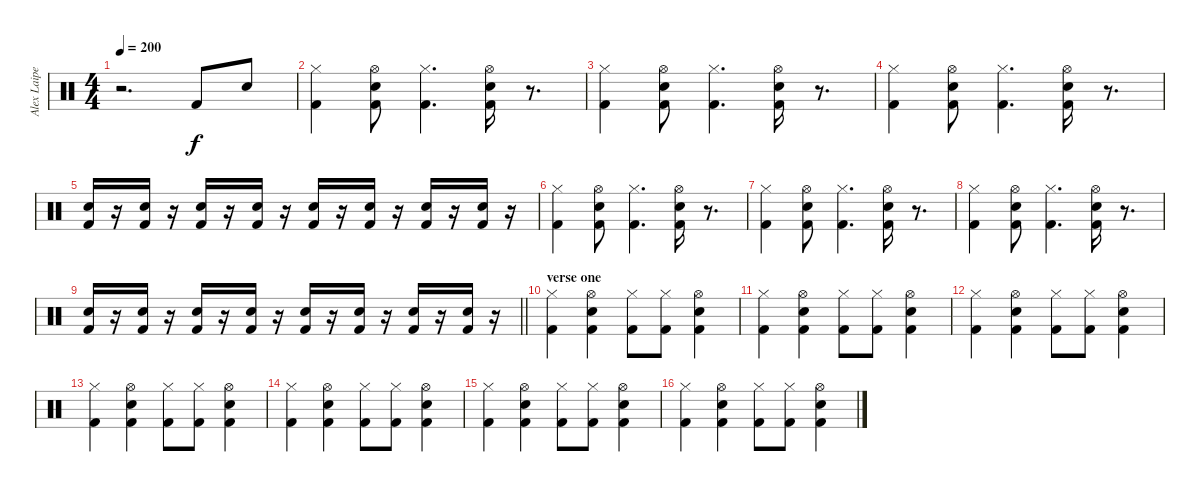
\track ("Alex Laipeneiks - Drums" "Alex Laipe") {instrument percussion}
\staff {score}
\articulation defaults
\ts (4 4)
\tempo 200
\clef neutral
\ks c
r.2{d dy f} "Kick (hit) 2".8 "Snare (hit) 2".8 |
("Hi-Hat (closed)" "Kick (hit) 2").4 ("Hi-Hat (open)" "Snare (hit) 2" "Kick (hit) 2").8 ("Hi-Hat (closed)" "Kick (hit) 2").4{d} ("Hi-Hat (open)" "Snare (hit) 2" "Kick (hit) 2").16 r.8{d} |
("Hi-Hat (closed)" "Kick (hit) 2").4 ("Hi-Hat (open)" "Snare (hit) 2" "Kick (hit) 2").8 ("Hi-Hat (closed)" "Kick (hit) 2").4{d} ("Hi-Hat (open)" "Snare (hit) 2" "Kick (hit) 2").16 r.8{d} |
("Hi-Hat (closed)" "Kick (hit) 2").4 ("Hi-Hat (open)" "Snare (hit) 2" "Kick (hit) 2").8 ("Hi-Hat (closed)" "Kick (hit) 2").4{d} ("Hi-Hat (open)" "Snare (hit) 2" "Kick (hit) 2").16 r.8{d} |
("Snare (hit) 2" "Kick (hit) 2").16 r.16 ("Snare (hit) 2" "Kick (hit) 2").16 r.16 ("Snare (hit) 2" "Kick (hit) 2").16 r.16 ("Snare (hit) 2" "Kick (hit) 2").16 r.16 ("Snare (hit) 2" "Kick (hit) 2").16 r.16 ("Snare (hit) 2" "Kick (hit) 2").16 r.16 ("Snare (hit) 2" "Kick (hit) 2").16 r.16 ("Snare (hit) 2" "Kick (hit) 2").16 r.16 |
("Hi-Hat (closed)" "Kick (hit) 2").4 ("Hi-Hat (open)" "Snare (hit) 2" "Kick (hit) 2").8 ("Hi-Hat (closed)" "Kick (hit) 2").4{d} ("Hi-Hat (open)" "Snare (hit) 2" "Kick (hit) 2").16 r.8{d} |
("Hi-Hat (closed)" "Kick (hit) 2").4 ("Hi-Hat (open)" "Snare (hit) 2" "Kick (hit) 2").8 ("Hi-Hat (closed)" "Kick (hit) 2").4{d} ("Hi-Hat (open)" "Snare (hit) 2" "Kick (hit) 2").16 r.8{d} |
("Hi-Hat (closed)" "Kick (hit) 2").4 ("Hi-Hat (open)" "Snare (hit) 2" "Kick (hit) 2").8 ("Hi-Hat (closed)" "Kick (hit) 2").4{d} ("Hi-Hat (open)" "Snare (hit) 2" "Kick (hit) 2").16 r.8{d} |
\barLineRight lightlight
("Snare (hit) 2" "Kick (hit) 2").16 r.16 ("Snare (hit) 2" "Kick (hit) 2").16 r.16 ("Snare (hit) 2" "Kick (hit) 2").16 r.16 ("Snare (hit) 2" "Kick (hit) 2").16 r.16 ("Snare (hit) 2" "Kick (hit) 2").16 r.16 ("Snare (hit) 2" "Kick (hit) 2").16 r.16 ("Snare (hit) 2" "Kick (hit) 2").16 r.16 ("Snare (hit) 2" "Kick (hit) 2").16 r.16 |
\section ("" "verse one")
("Hi-Hat (closed)" "Kick (hit) 2").4 ("Hi-Hat (open)" "Snare (hit) 2" "Kick (hit) 2").4 ("Hi-Hat (closed)" "Kick (hit) 2").8 ("Hi-Hat (closed)" "Kick (hit) 2").8 ("Hi-Hat (open)" "Snare (hit) 2" "Kick (hit) 2").4 |
("Hi-Hat (closed)" "Kick (hit) 2").4 ("Hi-Hat (open)" "Snare (hit) 2" "Kick (hit) 2").4 ("Hi-Hat (closed)" "Kick (hit) 2").8 ("Hi-Hat (closed)" "Kick (hit) 2").8 ("Hi-Hat (open)" "Snare (hit) 2" "Kick (hit) 2").4 |
("Hi-Hat (closed)" "Kick (hit) 2").4 ("Hi-Hat (open)" "Snare (hit) 2" "Kick (hit) 2").4 ("Hi-Hat (closed)" "Kick (hit) 2").8 ("Hi-Hat (closed)" "Kick (hit) 2").8 ("Hi-Hat (open)" "Snare (hit) 2" "Kick (hit) 2").4 |
("Hi-Hat (closed)" "Kick (hit) 2").4 ("Hi-Hat (open)" "Snare (hit) 2" "Kick (hit) 2").4 ("Hi-Hat (closed)" "Kick (hit) 2").8 ("Hi-Hat (closed)" "Kick (hit) 2").8 ("Hi-Hat (open)" "Snare (hit) 2" "Kick (hit) 2").4 |
("Hi-Hat (closed)" "Kick (hit) 2").4 ("Hi-Hat (open)" "Snare (hit) 2" "Kick (hit) 2").4 ("Hi-Hat (closed)" "Kick (hit) 2").8 ("Hi-Hat (closed)" "Kick (hit) 2").8 ("Hi-Hat (open)" "Snare (hit) 2" "Kick (hit) 2").4 |
("Hi-Hat (closed)" "Kick (hit) 2").4 ("Hi-Hat (open)" "Snare (hit) 2" "Kick (hit) 2").4 ("Hi-Hat (closed)" "Kick (hit) 2").8 ("Hi-Hat (closed)" "Kick (hit) 2").8 ("Hi-Hat (open)" "Snare (hit) 2" "Kick (hit) 2").4 |
("Hi-Hat (closed)" "Kick (hit) 2").4 ("Hi-Hat (open)" "Snare (hit) 2" "Kick (hit) 2").4 ("Hi-Hat (closed)" "Kick (hit) 2").8 ("Hi-Hat (closed)" "Kick (hit) 2").8 ("Hi-Hat (open)" "Snare (hit) 2" "Kick (hit) 2").4
